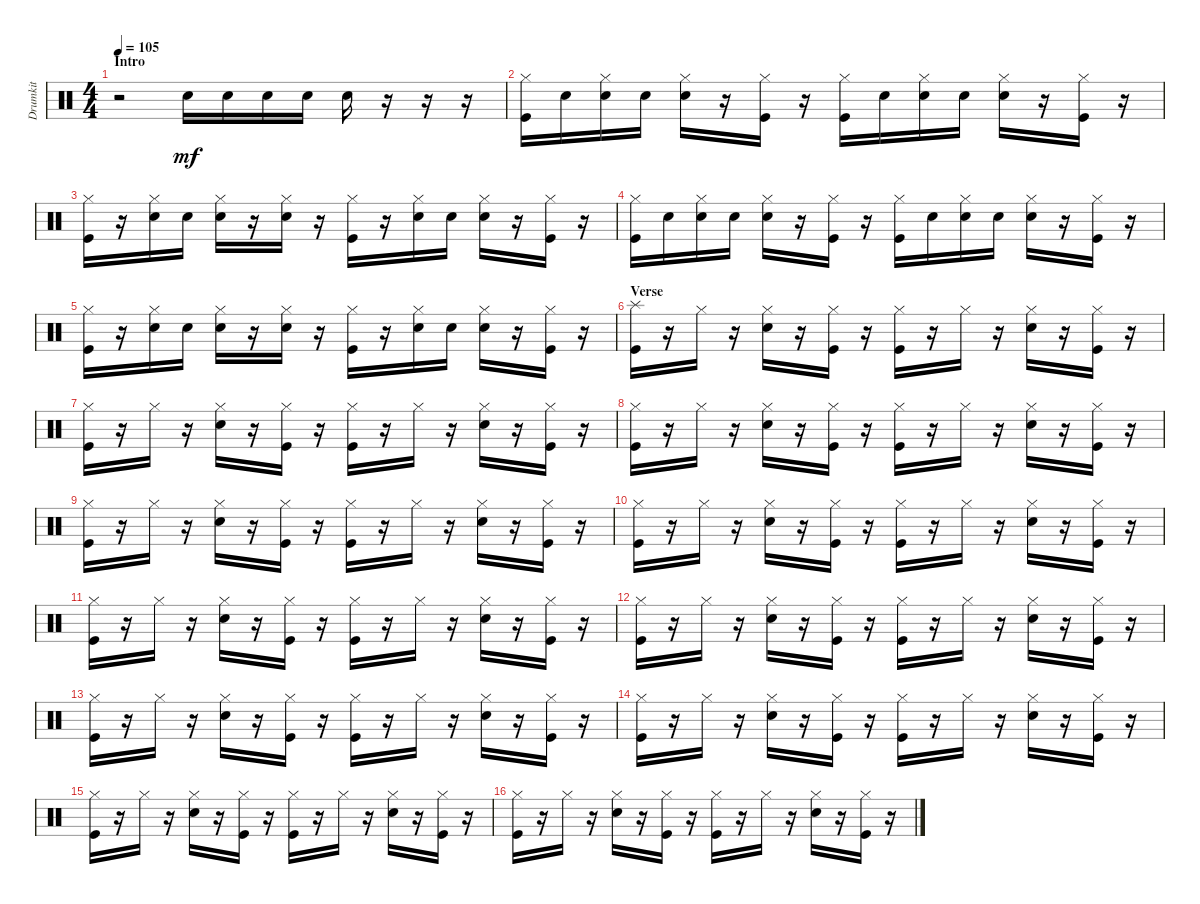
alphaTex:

\track ("Drumkit" "Drumkit") {instrument percussion}
\staff {score}
\articulation defaults
\ts (4 4)
\section ("" "Intro")
\tempo 105
\clef neutral
\ks c
r.2{dy mf} "Snare (hit) 2".16 "Snare (hit) 2".16 "Snare (hit) 2".16 "Snare (hit) 2".16 "Snare (hit) 2".16 r.16 r.16 r.16 |
("Hi-Hat (closed)" "Kick (hit)").16 "Snare (hit) 2".16 ("Hi-Hat (closed)" "Snare (hit) 2").16 "Snare (hit) 2".16 ("Hi-Hat (closed)" "Snare (hit) 2").16 r.16 ("Hi-Hat (closed)" "Kick (hit)").16 r.16 ("Hi-Hat (closed)" "Kick (hit)").16 "Snare (hit) 2".16 ("Hi-Hat (closed)" "Snare (hit) 2").16 "Snare (hit) 2".16 ("Hi-Hat (closed)" "Snare (hit) 2").16 r.16 ("Hi-Hat (closed)" "Kick (hit)").16 r.16 |
("Hi-Hat (closed)" "Kick (hit)").16 r.16 ("Hi-Hat (closed)" "Snare (hit) 2").16 "Snare (hit) 2".16 ("Hi-Hat (closed)" "Snare (hit) 2").16 r.16 ("Hi-Hat (closed)" "Snare (hit) 2").16 r.16 ("Hi-Hat (closed)" "Kick (hit)").16 r.16 ("Hi-Hat (closed)" "Snare (hit) 2").16 "Snare (hit) 2".16 ("Hi-Hat (closed)" "Snare (hit) 2").16 r.16 ("Hi-Hat (closed)" "Kick (hit)").16 r.16 |
("Hi-Hat (closed)" "Kick (hit)").16 "Snare (hit) 2".16 ("Hi-Hat (closed)" "Snare (hit) 2").16 "Snare (hit) 2".16 ("Hi-Hat (closed)" "Snare (hit) 2").16 r.16 ("Hi-Hat (closed)" "Kick (hit)").16 r.16 ("Hi-Hat (closed)" "Kick (hit)").16 "Snare (hit) 2".16 ("Hi-Hat (closed)" "Snare (hit) 2").16 "Snare (hit) 2".16 ("Hi-Hat (closed)" "Snare (hit) 2").16 r.16 ("Hi-Hat (closed)" "Kick (hit)").16 r.16 |
("Hi-Hat (closed)" "Kick (hit)").16 r.16 ("Hi-Hat (closed)" "Snare (hit) 2").16 "Snare (hit) 2".16 ("Hi-Hat (closed)" "Snare (hit) 2").16 r.16 ("Hi-Hat (closed)" "Snare (hit) 2").16 r.16 ("Hi-Hat (closed)" "Kick (hit)").16 r.16 ("Hi-Hat (closed)" "Snare (hit) 2").16 "Snare (hit) 2".16 ("Hi-Hat (closed)" "Snare (hit) 2").16 r.16 ("Hi-Hat (closed)" "Kick (hit)").16 r.16 |
\section ("" "Verse")
("Kick (hit)" "Splash (hit)").16 r.16 "Hi-Hat (closed)".16 r.16 ("Hi-Hat (closed)" "Snare (hit) 2").16 r.16 ("Hi-Hat (closed)" "Kick (hit)").16 r.16 ("Hi-Hat (closed)" "Kick (hit)").16 r.16 "Hi-Hat (closed)".16 r.16 ("Hi-Hat (closed)" "Snare (hit) 2").16 r.16 ("Hi-Hat (closed)" "Kick (hit)").16 r.16 |
("Kick (hit)" "Hi-Hat (closed)").16 r.16 "Hi-Hat (closed)".16 r.16 ("Hi-Hat (closed)" "Snare (hit) 2").16 r.16 ("Hi-Hat (closed)" "Kick (hit)").16 r.16 ("Hi-Hat (closed)" "Kick (hit)").16 r.16 "Hi-Hat (closed)".16 r.16 ("Hi-Hat (closed)" "Snare (hit) 2").16 r.16 ("Hi-Hat (closed)" "Kick (hit)").16 r.16 |
("Kick (hit)" "Hi-Hat (closed)").16 r.16 "Hi-Hat (closed)".16 r.16 ("Hi-Hat (closed)" "Snare (hit) 2").16 r.16 ("Hi-Hat (closed)" "Kick (hit)").16 r.16 ("Hi-Hat (closed)" "Kick (hit)").16 r.16 "Hi-Hat (closed)".16 r.16 ("Hi-Hat (closed)" "Snare (hit) 2").16 r.16 ("Hi-Hat (closed)" "Kick (hit)").16 r.16 |
("Kick (hit)" "Hi-Hat (closed)").16 r.16 "Hi-Hat (closed)".16 r.16 ("Hi-Hat (closed)" "Snare (hit) 2").16 r.16 ("Hi-Hat (closed)" "Kick (hit)").16 r.16 ("Hi-Hat (closed)" "Kick (hit)").16 r.16 "Hi-Hat (closed)".16 r.16 ("Hi-Hat (closed)" "Snare (hit) 2").16 r.16 ("Hi-Hat (closed)" "Kick (hit)").16 r.16 |
("Kick (hit)" "Hi-Hat (closed)").16 r.16 "Hi-Hat (closed)".16 r.16 ("Hi-Hat (closed)" "Snare (hit) 2").16 r.16 ("Hi-Hat (closed)" "Kick (hit)").16 r.16 ("Hi-Hat (closed)" "Kick (hit)").16 r.16 "Hi-Hat (closed)".16 r.16 ("Hi-Hat (closed)" "Snare (hit) 2").16 r.16 ("Hi-Hat (closed)" "Kick (hit)").16 r.16 |
("Kick (hit)" "Hi-Hat (closed)").16 r.16 "Hi-Hat (closed)".16 r.16 ("Hi-Hat (closed)" "Snare (hit) 2").16 r.16 ("Hi-Hat (closed)" "Kick (hit)").16 r.16 ("Hi-Hat (closed)" "Kick (hit)").16 r.16 "Hi-Hat (closed)".16 r.16 ("Hi-Hat (closed)" "Snare (hit) 2").16 r.16 ("Hi-Hat (closed)" "Kick (hit)").16 r.16 |
("Kick (hit)" "Hi-Hat (closed)").16 r.16 "Hi-Hat (closed)".16 r.16 ("Hi-Hat (closed)" "Snare (hit) 2").16 r.16 ("Hi-Hat (closed)" "Kick (hit)").16 r.16 ("Hi-Hat (closed)" "Kick (hit)").16 r.16 "Hi-Hat (closed)".16 r.16 ("Hi-Hat (closed)" "Snare (hit) 2").16 r.16 ("Hi-Hat (closed)" "Kick (hit)").16 r.16 |
("Kick (hit)" "Hi-Hat (closed)").16 r.16 "Hi-Hat (closed)".16 r.16 ("Hi-Hat (closed)" "Snare (hit) 2").16 r.16 ("Hi-Hat (closed)" "Kick (hit)").16 r.16 ("Hi-Hat (closed)" "Kick (hit)").16 r.16 "Hi-Hat (closed)".16 r.16 ("Hi-Hat (closed)" "Snare (hit) 2").16 r.16 ("Hi-Hat (closed)" "Kick (hit)").16 r.16 |
("Kick (hit)" "Hi-Hat (closed)").16 r.16 "Hi-Hat (closed)".16 r.16 ("Hi-Hat (closed)" "Snare (hit) 2").16 r.16 ("Hi-Hat (closed)" "Kick (hit)").16 r.16 ("Hi-Hat (closed)" "Kick (hit)").16 r.16 "Hi-Hat (closed)".16 r.16 ("Hi-Hat (closed)" "Snare (hit) 2").16 r.16 ("Hi-Hat (closed)" "Kick (hit)").16 r.16 |
("Kick (hit)" "Hi-Hat (closed)").16 r.16 "Hi-Hat (closed)".16 r.16 ("Hi-Hat (closed)" "Snare (hit) 2").16 r.16 ("Hi-Hat (closed)" "Kick (hit)").16 r.16 ("Hi-Hat (closed)" "Kick (hit)").16 r.16 "Hi-Hat (closed)".16 r.16 ("Hi-Hat (closed)" "Snare (hit) 2").16 r.16 ("Hi-Hat (closed)" "Kick (hit)").16 r.16 |
("Kick (hit)" "Hi-Hat (closed)").16 r.16 "Hi-Hat (closed)".16 r.16 ("Hi-Hat (closed)" "Snare (hit) 2").16 r.16 ("Hi-Hat (closed)" "Kick (hit)").16 r.16 ("Hi-Hat (closed)" "Kick (hit)").16 r.16 "Hi-Hat (closed)".16 r.16 ("Hi-Hat (closed)" "Snare (hit) 2").16 r.16 ("Hi-Hat (closed)" "Kick (hit)").16 r.16
